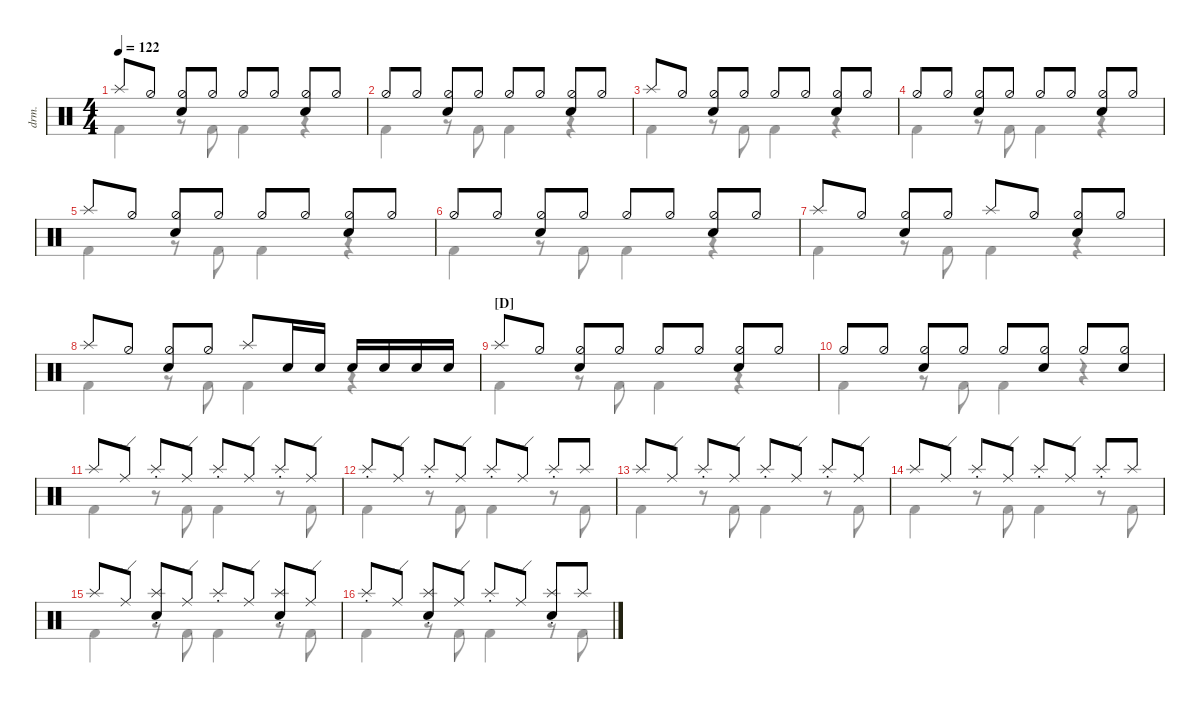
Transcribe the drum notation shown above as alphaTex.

\defaultSystemsLayout 4
\hideDynamics
\bracketExtendMode nobrackets
\track ("Drumkit" "drm.") {defaultSystemsLayout 4 instrument percussion}
\staff {score}
\articulation defaults
\voice
\ts (4 4)
\tempo 122
\clef neutral
\ks c "Splash (hit)".8{dy mf beam Up} "Hi-Hat (half)".8{beam Up}
("Hi-Hat (half)" "Snare (hit) 2").8{beam Up} "Hi-Hat (half)".8{beam Up} "Hi-Hat (half)".8{beam Up} "Hi-Hat (half)".8{beam Up} ("Hi-Hat (half)" "Snare (hit) 2").8{beam Up} "Hi-Hat (half)".8{beam Up} |
"Hi-Hat (half)".8{beam Up} "Hi-Hat (half)".8{beam Up} ("Hi-Hat (half)" "Snare (hit) 2").8{beam Up} "Hi-Hat (half)".8{beam Up} "Hi-Hat (half)".8{beam Up} "Hi-Hat (half)".8{beam Up} ("Hi-Hat (half)" "Snare (hit) 2").8{beam Up} "Hi-Hat (half)".8{beam Up} |
"Splash (hit)".8{beam Up} "Hi-Hat (half)".8{beam Up} ("Hi-Hat (half)" "Snare (hit) 2").8{beam Up} "Hi-Hat (half)".8{beam Up} "Hi-Hat (half)".8{beam Up} "Hi-Hat (half)".8{beam Up} ("Hi-Hat (half)" "Snare (hit) 2").8{beam Up} "Hi-Hat (half)".8{beam Up} |
"Hi-Hat (half)".8{beam Up} "Hi-Hat (half)".8{beam Up} ("Hi-Hat (half)" "Snare (hit) 2").8{beam Up} "Hi-Hat (half)".8{beam Up} "Hi-Hat (half)".8{beam Up} "Hi-Hat (half)".8{beam Up} ("Hi-Hat (half)" "Snare (hit) 2").8{beam Up} "Hi-Hat (half)".8{beam Up} |
"Splash (hit)".8{beam Up} "Hi-Hat (half)".8{beam Up} ("Hi-Hat (half)" "Snare (hit) 2").8{beam Up} "Hi-Hat (half)".8{beam Up} "Hi-Hat (half)".8{beam Up} "Hi-Hat (half)".8{beam Up} ("Hi-Hat (half)" "Snare (hit) 2").8{beam Up} "Hi-Hat (half)".8{beam Up} |
"Hi-Hat (half)".8{beam Up} "Hi-Hat (half)".8{beam Up} ("Hi-Hat (half)" "Snare (hit) 2").8{beam Up} "Hi-Hat (half)".8{beam Up} "Hi-Hat (half)".8{beam Up} "Hi-Hat (half)".8{beam Up} ("Hi-Hat (half)" "Snare (hit) 2").8{beam Up} "Hi-Hat (half)".8{beam Up} |
"Splash (hit)".8{beam Up} "Hi-Hat (half)".8{beam Up} ("Hi-Hat (half)" "Snare (hit) 2").8{beam Up} "Hi-Hat (half)".8{beam Up} "Splash (hit)".8{beam Up} "Hi-Hat (half)".8{beam Up} ("Hi-Hat (half)" "Snare (hit) 2").8{beam Up} "Hi-Hat (half)".8{beam Up} |
"Splash (hit)".8{beam Up} "Hi-Hat (half)".8{beam Up} ("Hi-Hat (half)" "Snare (hit) 2").8{beam Up} "Hi-Hat (half)".8{beam Up} "Splash (hit)".8{beam Up} "Snare (hit) 2".16{beam Up} "Snare (hit) 2".16{beam Up} "Snare (hit) 2".16{beam Up} "Snare (hit) 2".16{beam Up} "Snare (hit) 2".16{beam Up} "Snare (hit) 2".16{beam Up} |
\section ("D" "")
"Splash (hit)".8{beam Up} "Hi-Hat (half)".8{beam Up} ("Hi-Hat (half)" "Snare (hit) 2").8{beam Up} "Hi-Hat (half)".8{beam Up} "Hi-Hat (half)".8{beam Up} "Hi-Hat (half)".8{beam Up} ("Hi-Hat (half)" "Snare (hit) 2").8{beam Up} "Hi-Hat (half)".8{beam Up} |
"Hi-Hat (half)".8{beam Up} "Hi-Hat (half)".8{beam Up} ("Hi-Hat (half)" "Snare (hit) 2").8{beam Up} "Hi-Hat (half)".8{beam Up} "Hi-Hat (half)".8{beam Up} ("Hi-Hat (half)" "Snare (hit) 2").8{beam Up} "Hi-Hat (half)".8{beam Up} ("Hi-Hat (half)" "Snare (hit) 2").8{beam Up} |
"Splash (hit)".8{beam Up} "Ride (edge)".8{beam Up} "Splash (choke)".8{beam Up} "Ride (edge)".8{beam Up} "Splash (choke)".8{beam Up} "Ride (edge)".8{beam Up} "Splash (choke)".8{beam Up} "Ride (edge)".8{beam Up} |
"Splash (choke)".8{beam Up} "Ride (edge)".8{beam Up} "Splash (choke)".8{beam Up} "Ride (edge)".8{beam Up} "Splash (choke)".8{beam Up} "Ride (edge)".8{beam Up} "Splash (choke)".8{beam Up} "Splash (hit)".8{beam Up} |
"Splash (hit)".8{beam Up} "Ride (edge)".8{beam Up} "Splash (choke)".8{beam Up} "Ride (edge)".8{beam Up} "Splash (choke)".8{beam Up} "Ride (edge)".8{beam Up} "Splash (choke)".8{beam Up} "Ride (edge)".8{beam Up} |
"Splash (hit)".8{beam Up} "Ride (edge)".8{beam Up} "Splash (choke)".8{beam Up} "Ride (edge)".8{beam Up} "Splash (choke)".8{beam Up} "Ride (edge)".8{beam Up} "Splash (choke)".8{beam Up} "Splash (hit)".8{beam Up} |
"Splash (hit)".8{beam Up} "Ride (edge)".8{beam Up} ("Splash (choke)" "Snare (hit) 2").8{beam Up} "Ride (edge)".8{beam Up} "Splash (choke)".8{beam Up} "Ride (edge)".8{beam Up} ("Splash (choke)" "Snare (hit) 2").8{beam Up} "Ride (edge)".8{beam Up} |
"Splash (choke)".8{beam Up} "Ride (edge)".8{beam Up} ("Splash (choke)" "Snare (hit) 2").8{beam Up} "Ride (edge)".8{beam Up} "Splash (choke)".8{beam Up} "Ride (edge)".8{beam Up} ("Splash (choke)" "Snare (hit) 2").8{beam Up} "Splash (hit)".8{beam Up}
\voice
\clef neutral
\ottava regular
\simile none
\ks c
|
|
|
|
|
|
|
|
|
|
|
|
|
|
|
\voice
\clef neutral
\ottava regular
\simile none
\ks c "Kick (hit) 2".4{dy mf beam Down}
r.8{beam Down} "Kick (hit) 2".8{beam Down} "Kick (hit) 2".4{beam Down} r.4{beam Down} |
"Kick (hit) 2".4{beam Down} r.8{beam Down} "Kick (hit) 2".8{beam Down} "Kick (hit) 2".4{beam Down} r.4{beam Down} |
"Kick (hit) 2".4{beam Down} r.8{beam Down} "Kick (hit) 2".8{beam Down} "Kick (hit) 2".4{beam Down} r.4{beam Down} |
"Kick (hit) 2".4{beam Down} r.8{beam Down} "Kick (hit) 2".8{beam Down} "Kick (hit) 2".4{beam Down} r.4{beam Down} |
"Kick (hit) 2".4{beam Down} r.8{beam Down} "Kick (hit) 2".8{beam Down} "Kick (hit) 2".4{beam Down} r.4{beam Down} |
"Kick (hit) 2".4{beam Down} r.8{beam Down} "Kick (hit) 2".8{beam Down} "Kick (hit) 2".4{beam Down} r.4{beam Down} |
"Kick (hit) 2".4{beam Down} r.8{beam Down} "Kick (hit) 2".8{beam Down} "Kick (hit) 2".4{beam Down} r.4{beam Down} |
"Kick (hit) 2".4{beam Down} r.8{beam Down} "Kick (hit) 2".8{beam Down} "Kick (hit) 2".4{beam Down} r.4{beam Down} |
"Kick (hit) 2".4{beam Down} r.8{beam Down} "Kick (hit) 2".8{beam Down} "Kick (hit) 2".4{beam Down} r.4{beam Down} |
"Kick (hit) 2".4{beam Down} r.8{beam Down} "Kick (hit) 2".8{beam Down} "Kick (hit) 2".4{beam Down} r.4{beam Down} |
"Kick (hit) 2".4{beam Down} r.8{beam Down} "Kick (hit) 2".8{beam Down} "Kick (hit) 2".4{beam Down} r.8{beam Down} "Kick (hit) 2".8{beam Down} |
"Kick (hit) 2".4{beam Down} r.8{beam Down} "Kick (hit) 2".8{beam Down} "Kick (hit) 2".4{beam Down} r.8{beam Down} "Kick (hit) 2".8{beam Down} |
"Kick (hit) 2".4{beam Down} r.8{beam Down} "Kick (hit) 2".8{beam Down} "Kick (hit) 2".4{beam Down} r.8{beam Down} "Kick (hit) 2".8{beam Down} |
"Kick (hit) 2".4{beam Down} r.8{beam Down} "Kick (hit) 2".8{beam Down} "Kick (hit) 2".4{beam Down} r.8{beam Down} "Kick (hit) 2".8{beam Down} |
"Kick (hit) 2".4{beam Down} r.8{beam Down} "Kick (hit) 2".8{beam Down} "Kick (hit) 2".4{beam Down} r.8{beam Down} "Kick (hit) 2".8{beam Down} |
"Kick (hit) 2".4{beam Down} r.8{beam Down} "Kick (hit) 2".8{beam Down} "Kick (hit) 2".4{beam Down} r.8{beam Down} "Kick (hit) 2".8{beam Down}
